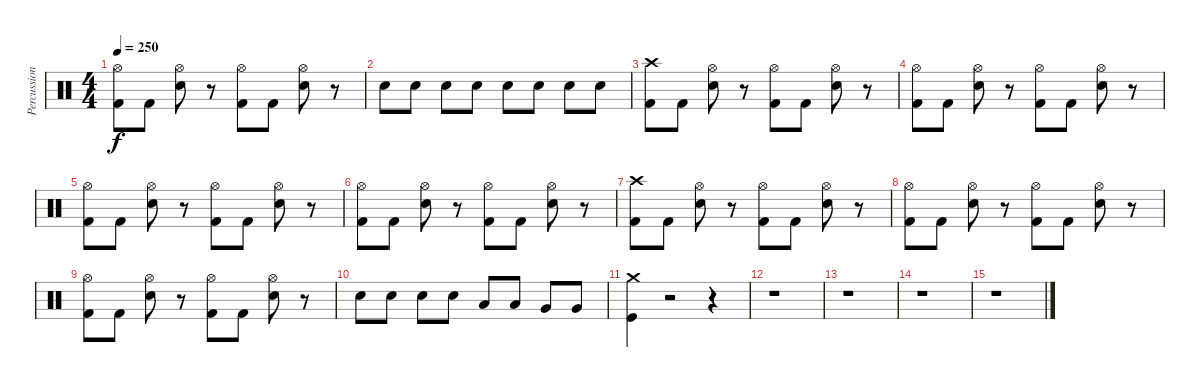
\track ("Percussion" "Percussion") {instrument percussion}
\staff {score}
\articulation defaults
\ts (4 4)
\tempo 250
\clef neutral
\ks c
("Hi-Hat (open)" "Kick (hit) 2").8{dy f} "Kick (hit) 2".8 ("Hi-Hat (open)" "Snare (hit) 2").8 r.8 ("Hi-Hat (open)" "Kick (hit) 2").8 "Kick (hit) 2".8 ("Hi-Hat (open)" "Snare (hit) 2").8 r.8 |
"Snare (hit) 2".8 "Snare (hit) 2".8 "Snare (hit) 2".8 "Snare (hit) 2".8 "Snare (hit) 2".8 "Snare (hit) 2".8 "Snare (hit) 2".8 "Snare (hit) 2".8 |
("Crash high (hit)" "Kick (hit) 2").8 "Kick (hit) 2".8 ("Hi-Hat (open)" "Snare (hit) 2").8 r.8 ("Hi-Hat (open)" "Kick (hit) 2").8 "Kick (hit) 2".8 ("Hi-Hat (open)" "Snare (hit) 2").8 r.8 |
("Hi-Hat (open)" "Kick (hit) 2").8 "Kick (hit) 2".8 ("Hi-Hat (open)" "Snare (hit) 2").8 r.8 ("Hi-Hat (open)" "Kick (hit) 2").8 "Kick (hit) 2".8 ("Hi-Hat (open)" "Snare (hit) 2").8 r.8 |
("Hi-Hat (open)" "Kick (hit) 2").8 "Kick (hit) 2".8 ("Hi-Hat (open)" "Snare (hit) 2").8 r.8 ("Hi-Hat (open)" "Kick (hit) 2").8 "Kick (hit) 2".8 ("Hi-Hat (open)" "Snare (hit) 2").8 r.8 |
("Hi-Hat (open)" "Kick (hit) 2").8 "Kick (hit) 2".8 ("Hi-Hat (open)" "Snare (hit) 2").8 r.8 ("Hi-Hat (open)" "Kick (hit) 2").8 "Kick (hit) 2".8 ("Hi-Hat (open)" "Snare (hit) 2").8 r.8 |
("Crash high (hit)" "Kick (hit) 2").8 "Kick (hit) 2".8 ("Hi-Hat (open)" "Snare (hit) 2").8 r.8 ("Hi-Hat (open)" "Kick (hit) 2").8 "Kick (hit) 2".8 ("Hi-Hat (open)" "Snare (hit) 2").8 r.8 |
("Hi-Hat (open)" "Kick (hit) 2").8 "Kick (hit) 2".8 ("Hi-Hat (open)" "Snare (hit) 2").8 r.8 ("Hi-Hat (open)" "Kick (hit) 2").8 "Kick (hit) 2".8 ("Hi-Hat (open)" "Snare (hit) 2").8 r.8 |
("Hi-Hat (open)" "Kick (hit) 2").8 "Kick (hit) 2".8 ("Hi-Hat (open)" "Snare (hit) 2").8 r.8 ("Hi-Hat (open)" "Kick (hit) 2").8 "Kick (hit) 2".8 ("Hi-Hat (open)" "Snare (hit) 2").8 r.8 |
"Snare (hit) 2".8 "Snare (hit) 2".8 "Snare (hit) 2".8 "Snare (hit) 2".8 "Low Tom (hit)".8 "Low Tom (hit)".8 "Very Low Tom (hit)".8 "Very Low Tom (hit)".8 |
("Crash medium (hit)" "Kick (hit)").4 r.2 r.4 |
r.1 |
r.1 |
r.1 |
r.1
